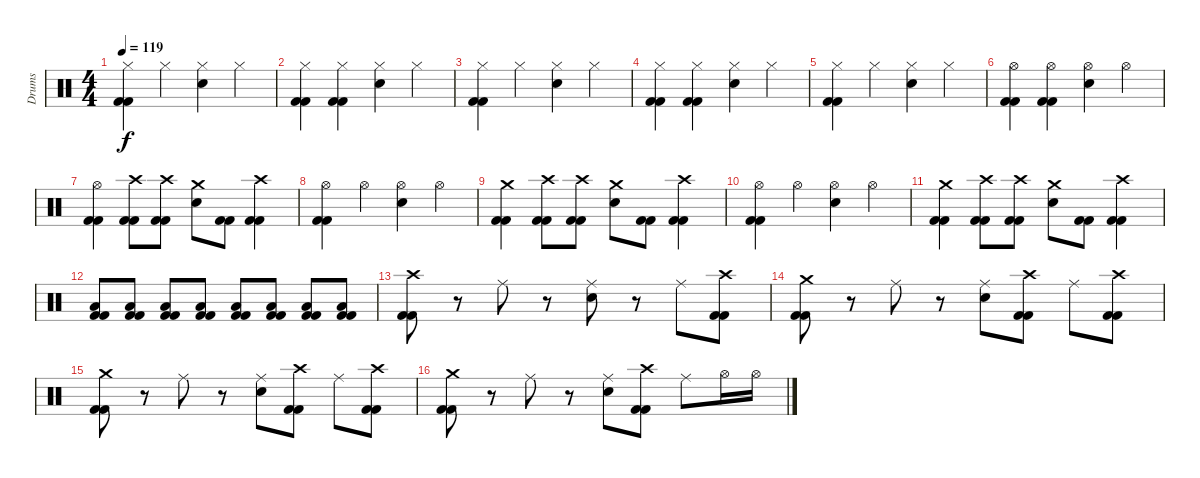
\track ("Drums" "Drums") {instrument percussion}
\staff {score}
\articulation defaults
\ts (4 4)
\tempo 119
\clef neutral
\ks c
("Hi-Hat (closed)" "Kick (hit) 2" "Kick (hit) 2").4{dy f} "Hi-Hat (closed)".4 ("Hi-Hat (closed)" "Electric Snare (hit)").4 "Hi-Hat (closed)".4 |
("Hi-Hat (closed)" "Kick (hit) 2" "Kick (hit) 2").4 ("Hi-Hat (closed)" "Kick (hit) 2" "Kick (hit) 2").4 ("Hi-Hat (closed)" "Electric Snare (hit)").4 "Hi-Hat (closed)".4 |
("Hi-Hat (closed)" "Kick (hit) 2" "Kick (hit) 2").4 "Hi-Hat (closed)".4 ("Hi-Hat (closed)" "Electric Snare (hit)").4 "Hi-Hat (closed)".4 |
("Hi-Hat (closed)" "Kick (hit) 2" "Kick (hit) 2").4 ("Hi-Hat (closed)" "Kick (hit) 2" "Kick (hit) 2").4 ("Hi-Hat (closed)" "Electric Snare (hit)").4 "Hi-Hat (closed)".4 |
("Hi-Hat (closed)" "Kick (hit) 2" "Kick (hit) 2").4 "Hi-Hat (closed)".4 ("Hi-Hat (closed)" "Electric Snare (hit)").4 "Hi-Hat (closed)".4 |
("Hi-Hat (open)" "Kick (hit) 2" "Kick (hit) 2").4 ("Hi-Hat (open)" "Kick (hit) 2" "Kick (hit) 2").4 ("Hi-Hat (open)" "Electric Snare (hit)").4 "Hi-Hat (open)".4 |
("Hi-Hat (open)" "Kick (hit) 2" "Kick (hit) 2").4 ("Crash high (hit)" "Kick (hit) 2" "Kick (hit) 2").8 ("Crash high (hit)" "Kick (hit) 2" "Kick (hit) 2").8 ("Crash medium (hit)" "Electric Snare (hit)").8 ("Kick (hit) 2" "Kick (hit) 2").8 ("Crash high (hit)" "Kick (hit) 2" "Kick (hit) 2").4 |
("Hi-Hat (open)" "Kick (hit) 2" "Kick (hit) 2").4 "Hi-Hat (open)".4 ("Hi-Hat (open)" "Electric Snare (hit)").4 "Hi-Hat (open)".4 |
("Crash medium (hit)" "Kick (hit) 2" "Kick (hit) 2").4 ("Crash high (hit)" "Kick (hit) 2" "Kick (hit) 2").8 ("Crash high (hit)" "Kick (hit) 2" "Kick (hit) 2").8 ("Crash medium (hit)" "Electric Snare (hit)").8 ("Kick (hit) 2" "Kick (hit) 2").8 ("Crash high (hit)" "Kick (hit) 2" "Kick (hit) 2").4 |
("Hi-Hat (open)" "Kick (hit) 2" "Kick (hit) 2").4 "Hi-Hat (open)".4 ("Hi-Hat (open)" "Electric Snare (hit)").4 "Hi-Hat (open)".4 |
("Crash medium (hit)" "Kick (hit) 2" "Kick (hit) 2").4 ("Crash high (hit)" "Kick (hit) 2" "Kick (hit) 2").8 ("Crash high (hit)" "Kick (hit) 2" "Kick (hit) 2").8 ("Crash medium (hit)" "Electric Snare (hit)").8 ("Kick (hit) 2" "Kick (hit) 2").8 ("Crash high (hit)" "Kick (hit) 2" "Kick (hit) 2").4 |
("Low Floor Tom (hit)" "Kick (hit) 2" "Kick (hit) 2").8 ("Low Floor Tom (hit)" "Kick (hit) 2" "Kick (hit) 2").8 ("Low Floor Tom (hit)" "Kick (hit) 2" "Kick (hit) 2").8 ("Low Floor Tom (hit)" "Kick (hit) 2" "Kick (hit) 2").8 ("Low Floor Tom (hit)" "Kick (hit) 2" "Kick (hit) 2").8 ("Low Floor Tom (hit)" "Kick (hit) 2" "Kick (hit) 2").8 ("Low Floor Tom (hit)" "Kick (hit) 2" "Kick (hit) 2").8 ("Low Floor Tom (hit)" "Kick (hit) 2" "Kick (hit) 2").8 |
("Crash high (hit)" "Kick (hit) 2" "Kick (hit) 2").8 r.8 "Ride (middle)".8 r.8 ("Ride (middle)" "Electric Snare (hit)").8 r.8 "Ride (middle)".8 ("Crash high (hit)" "Kick (hit) 2" "Kick (hit) 2").8 |
("Crash medium (hit)" "Kick (hit) 2" "Kick (hit) 2").8 r.8 "Ride (middle)".8 r.8 ("Ride (middle)" "Electric Snare (hit)").8 ("Crash high (hit)" "Kick (hit) 2" "Kick (hit) 2").8 "Ride (middle)".8 ("Crash high (hit)" "Kick (hit) 2" "Kick (hit) 2").8 |
("Crash medium (hit)" "Kick (hit) 2" "Kick (hit) 2").8 r.8 "Ride (middle)".8 r.8 ("Ride (middle)" "Electric Snare (hit)").8 ("Crash high (hit)" "Kick (hit) 2" "Kick (hit) 2").8 "Ride (middle)".8 ("Crash high (hit)" "Kick (hit) 2" "Kick (hit) 2").8 |
("Crash medium (hit)" "Kick (hit) 2" "Kick (hit) 2").8 r.8 "Ride (middle)".8 r.8 ("Ride (middle)" "Electric Snare (hit)").8 ("Crash high (hit)" "Kick (hit) 2" "Kick (hit) 2").8 "Ride (middle)".8 "Hi-Hat (open)".16 "Hi-Hat (open)".16
